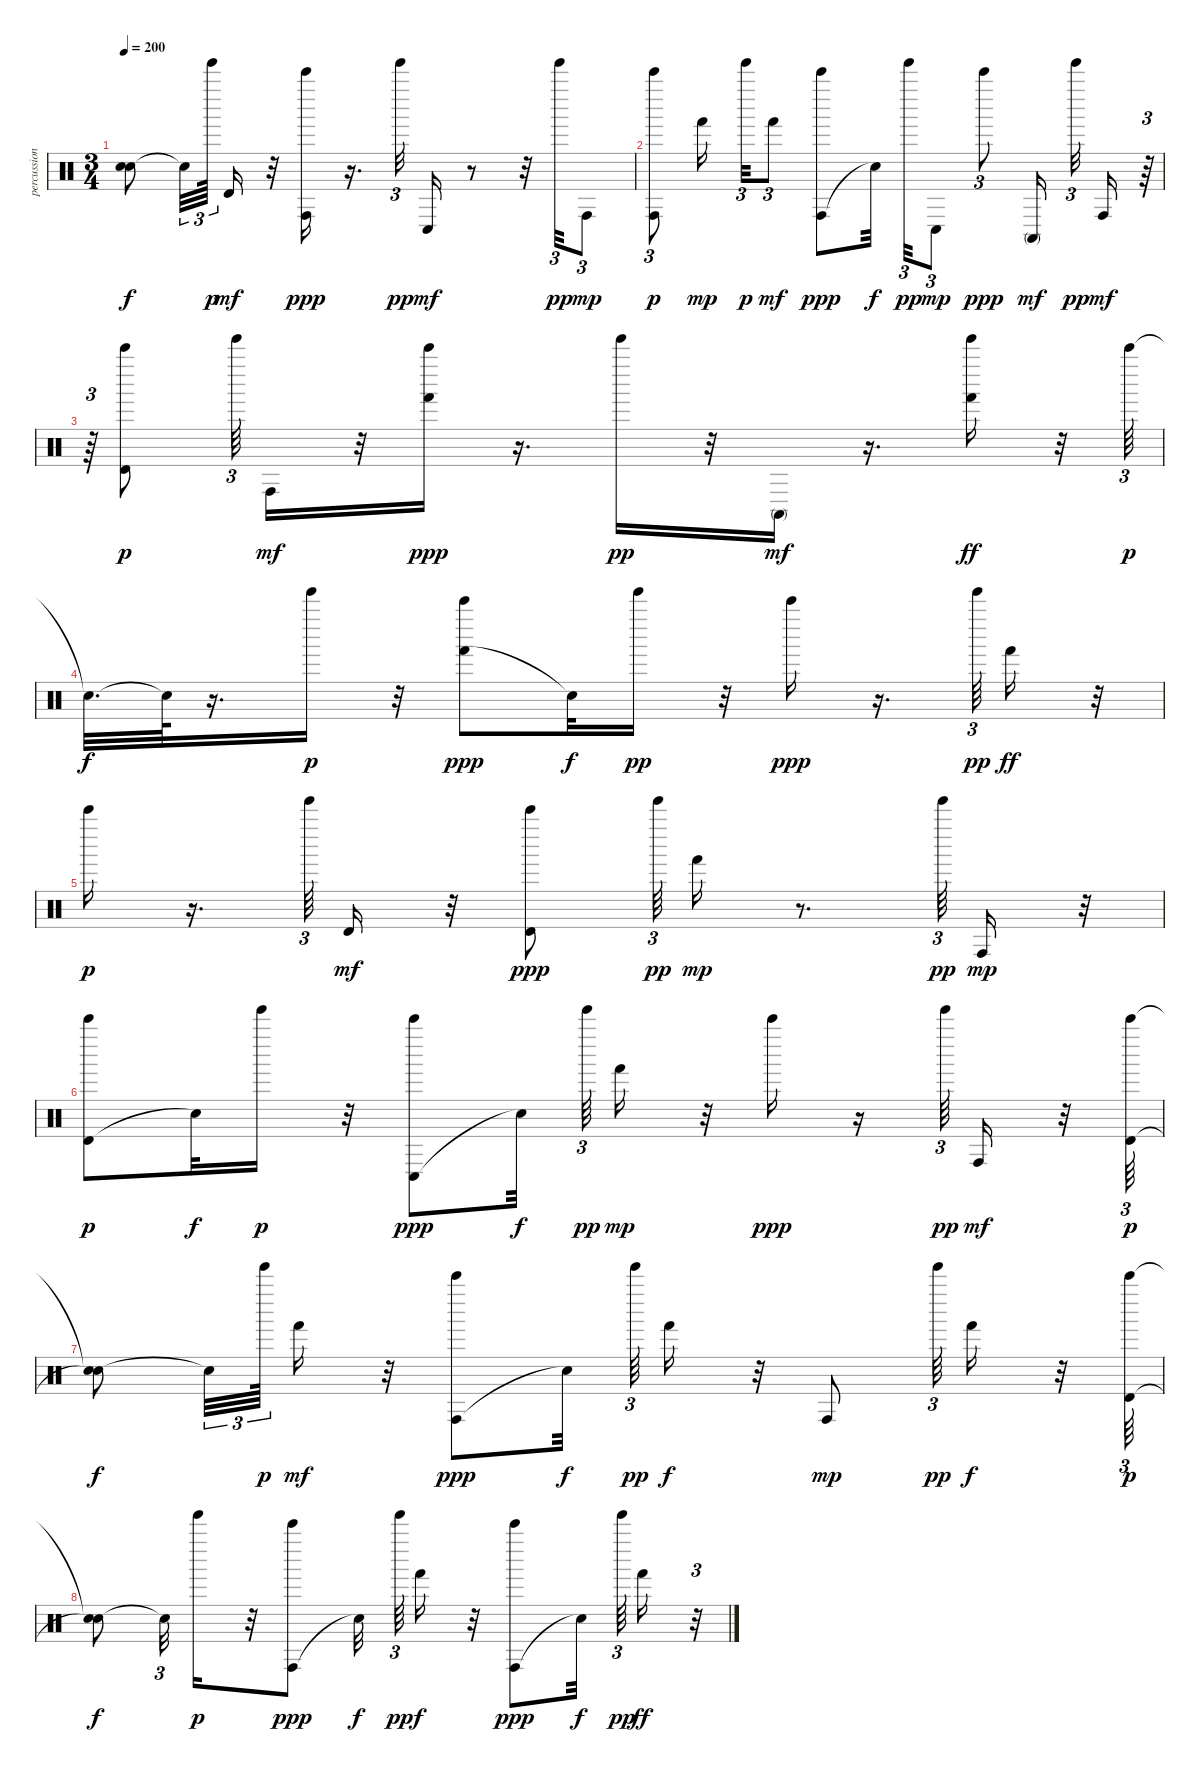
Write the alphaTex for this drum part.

\track ("percussion" "percussion") {instrument percussion}
\staff {score}
\articulation defaults
\ts (3 4)
\tempo 200
\clef neutral
\ks c
("Snare (hit)"{t} "Snare (hit)"{t}).8{dy f} "Snare (hit)"{t}.32{tu (3 2)} "Tinkle Bell (hit)".64{tu (3 2) dy p} "Timbale high (hit)".16{dy mf} r.32 ("Conga high (hit)" "Bell Tree (hit)").16{dy ppp} r.16{d} "Tinkle Bell (hit)".32{tu (3 2) dy pp} "Conga low (hit)".16{dy mf} r.8 r.32 "Tinkle Bell (hit)".32{tu (3 2) dy pp} "Conga high (hit)".8{tu (3 2) dy mp} |
("Conga high (hit)" "Bell Tree (hit)").8{tu (3 2) dy p} "Hand (hit)".16{dy mp} "Tinkle Bell (hit)".32{tu (3 2) dy p} "Hand (hit)".8{tu (3 2) dy mf} ("Conga high (hit)" "Bell Tree (hit)").8{dy ppp} "Snare (hit)"{t}.32{dy f} "Tinkle Bell (hit)".32{tu (3 2) dy pp} "Conga low (hit)".8{tu (3 2) dy mp} "Bell Tree (hit)".8{tu (3 2) dy ppp} "Conga high (mute)".16{dy mf} "Tinkle Bell (hit)".32{tu (3 2) dy pp} "Conga high (hit)".16{dy mf} r.64{tu (3 2)} |
r.64{tu (3 2)} ("Timbale high (hit)" "Bell Tree (hit)").8{dy p} "Tinkle Bell (hit)".64{tu (3 2)} "Conga high (hit)".16{dy mf} r.32 ("Hand (hit)" "Bell Tree (hit)").16{dy ppp} r.16{d} "Tinkle Bell (hit)".16{dy pp} r.32 "Conga high (mute)".16{dy mf} r.16{d} ("Tinkle Bell (hit)" "Hand (hit)").16{dy ff} r.32 "Bell Tree (hit)".64{tu (3 2) dy p} |
"Snare (hit)"{t}.32{d dy f} "Snare (hit)"{t}.64 r.16{d} "Tinkle Bell (hit)".16{dy p} r.32 ("Hand (hit)" "Bell Tree (hit)").8{dy ppp} "Snare (hit)"{t}.32{dy f} "Tinkle Bell (hit)".16{dy pp} r.32 "Bell Tree (hit)".16{dy ppp} r.16{d} "Tinkle Bell (hit)".64{tu (3 2) dy pp} "Hand (hit)".16{dy ff} r.32 |
"Bell Tree (hit)".16{dy p} r.16{d} "Tinkle Bell (hit)".64{tu (3 2)} "Timbale high (hit)".16{dy mf} r.32 ("Timbale high (hit)" "Bell Tree (hit)").8{dy ppp} "Tinkle Bell (hit)".64{tu (3 2) dy pp} "Hand (hit)".16{dy mp} r.8{d} "Tinkle Bell (hit)".64{tu (3 2) dy pp} "Conga high (hit)".16{dy mp} r.32 |
("Timbale high (hit)" "Bell Tree (hit)").8{dy p} "Snare (hit)"{t}.32{dy f} "Tinkle Bell (hit)".16{dy p} r.32 ("Conga low (hit)" "Bell Tree (hit)").8{dy ppp} "Snare (hit)"{t}.32{dy f} "Tinkle Bell (hit)".64{tu (3 2) dy pp} "Hand (hit)".16{dy mp} r.32 "Bell Tree (hit)".16{dy ppp} r.16 "Tinkle Bell (hit)".64{tu (3 2) dy pp} "Conga high (hit)".16{dy mf} r.32 ("Timbale high (hit)" "Bell Tree (hit)").64{tu (3 2) dy p} |
("Snare (hit)"{t} "Snare (hit)"{t}).8{dy f} "Snare (hit)"{t}.32{tu (3 2)} "Tinkle Bell (hit)".64{tu (3 2) dy p} "Hand (hit)".16{dy mf} r.32 ("Conga high (hit)" "Bell Tree (hit)").8{dy ppp} "Snare (hit)"{t}.32{dy f} "Tinkle Bell (hit)".64{tu (3 2) dy pp} "Hand (hit)".16{dy f} r.32 "Conga high (hit)".8{dy mp} "Tinkle Bell (hit)".64{tu (3 2) dy pp} "Hand (hit)".16{dy f} r.32 ("Timbale high (hit)" "Bell Tree (hit)").64{tu (3 2) dy p} |
("Snare (hit)"{t} "Snare (hit)"{t}).8{dy f} "Snare (hit)"{t}.32{tu (3 2)} "Tinkle Bell (hit)".16{dy p} r.32 ("Conga high (hit)" "Bell Tree (hit)").8{dy ppp} "Snare (hit)"{t}.32{dy f} "Tinkle Bell (hit)".64{tu (3 2) dy pp} "Hand (hit)".16{dy f} r.32 ("Conga high (hit)" "Bell Tree (hit)").8{dy ppp} "Snare (hit)"{t}.32{dy f} "Tinkle Bell (hit)".64{tu (3 2) dy pp} "Hand (hit)".16{dy ff} r.32{tu (3 2)}
